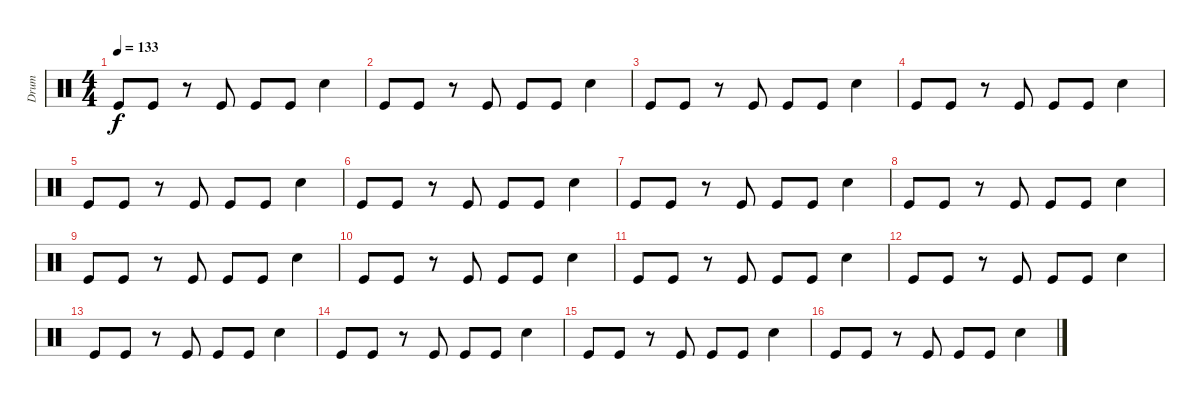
\track ("Drum" "Drum") {instrument percussion}
\staff {score}
\articulation defaults
\ts (4 4)
\tempo 133
\clef neutral
\ks c "Kick (hit)".8{dy f} "Kick (hit)".8
r.8 "Kick (hit)".8 "Kick (hit)".8 "Kick (hit)".8 "Snare (hit) 2".4 |
"Kick (hit)".8 "Kick (hit)".8 r.8 "Kick (hit)".8 "Kick (hit)".8 "Kick (hit)".8 "Snare (hit) 2".4 |
"Kick (hit)".8 "Kick (hit)".8 r.8 "Kick (hit)".8 "Kick (hit)".8 "Kick (hit)".8 "Snare (hit) 2".4 |
"Kick (hit)".8 "Kick (hit)".8 r.8 "Kick (hit)".8 "Kick (hit)".8 "Kick (hit)".8 "Snare (hit) 2".4 |
"Kick (hit)".8 "Kick (hit)".8 r.8 "Kick (hit)".8 "Kick (hit)".8 "Kick (hit)".8 "Snare (hit) 2".4 |
"Kick (hit)".8 "Kick (hit)".8 r.8 "Kick (hit)".8 "Kick (hit)".8 "Kick (hit)".8 "Snare (hit) 2".4 |
"Kick (hit)".8 "Kick (hit)".8 r.8 "Kick (hit)".8 "Kick (hit)".8 "Kick (hit)".8 "Snare (hit) 2".4 |
"Kick (hit)".8 "Kick (hit)".8 r.8 "Kick (hit)".8 "Kick (hit)".8 "Kick (hit)".8 "Snare (hit) 2".4 |
"Kick (hit)".8 "Kick (hit)".8 r.8 "Kick (hit)".8 "Kick (hit)".8 "Kick (hit)".8 "Snare (hit) 2".4 |
"Kick (hit)".8 "Kick (hit)".8 r.8 "Kick (hit)".8 "Kick (hit)".8 "Kick (hit)".8 "Snare (hit) 2".4 |
"Kick (hit)".8 "Kick (hit)".8 r.8 "Kick (hit)".8 "Kick (hit)".8 "Kick (hit)".8 "Snare (hit) 2".4 |
"Kick (hit)".8 "Kick (hit)".8 r.8 "Kick (hit)".8 "Kick (hit)".8 "Kick (hit)".8 "Snare (hit) 2".4 |
"Kick (hit)".8 "Kick (hit)".8 r.8 "Kick (hit)".8 "Kick (hit)".8 "Kick (hit)".8 "Snare (hit) 2".4 |
"Kick (hit)".8 "Kick (hit)".8 r.8 "Kick (hit)".8 "Kick (hit)".8 "Kick (hit)".8 "Snare (hit) 2".4 |
"Kick (hit)".8 "Kick (hit)".8 r.8 "Kick (hit)".8 "Kick (hit)".8 "Kick (hit)".8 "Snare (hit) 2".4 |
"Kick (hit)".8 "Kick (hit)".8 r.8 "Kick (hit)".8 "Kick (hit)".8 "Kick (hit)".8 "Snare (hit) 2".4
